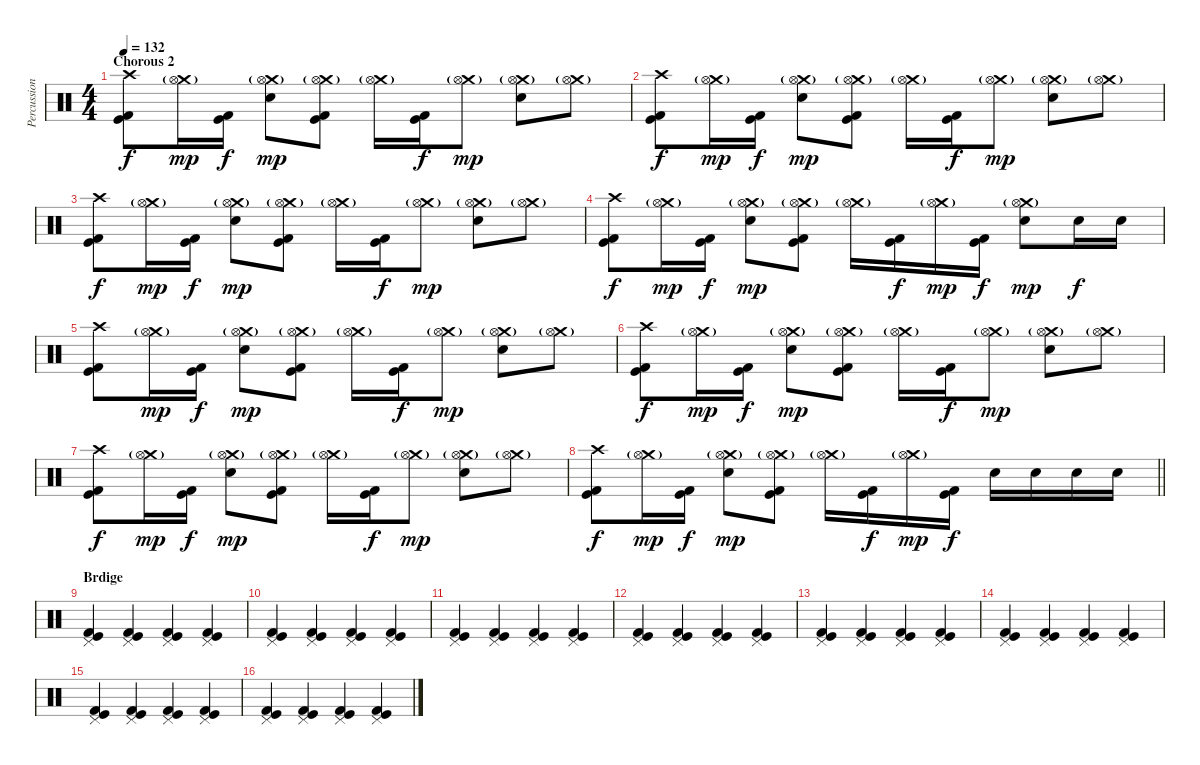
\track ("Percussion" "Percussion") {instrument percussion}
\staff {score}
\articulation defaults
\ts (4 4)
\section ("" "Chorous 2")
\tempo 132
\clef neutral
\ks c
("Crash high (hit)" "Kick (hit)" "Kick (hit) 2").8{dy f} ("Crash medium (hit)"{g} "Hi-Hat (open)").16{dy mp} ("Kick (hit)" "Kick (hit) 2").16{dy f} ("Crash medium (hit)"{g} "Hi-Hat (open)" "Electric Snare (hit)").8{dy mp} ("Crash medium (hit)"{g} "Hi-Hat (open)" "Kick (hit)" "Kick (hit) 2").8 ("Crash medium (hit)"{g} "Hi-Hat (open)").16 ("Kick (hit)" "Kick (hit) 2").16{dy f} ("Crash medium (hit)"{g} "Hi-Hat (open)").8{dy mp} ("Crash medium (hit)"{g} "Hi-Hat (open)" "Electric Snare (hit)").8 ("Crash medium (hit)"{g} "Hi-Hat (open)").8 |
("Crash high (hit)" "Kick (hit)" "Kick (hit) 2").8{dy f} ("Crash medium (hit)"{g} "Hi-Hat (open)").16{dy mp} ("Kick (hit)" "Kick (hit) 2").16{dy f} ("Crash medium (hit)"{g} "Hi-Hat (open)" "Electric Snare (hit)").8{dy mp} ("Crash medium (hit)"{g} "Hi-Hat (open)" "Kick (hit)" "Kick (hit) 2").8 ("Crash medium (hit)"{g} "Hi-Hat (open)").16 ("Kick (hit)" "Kick (hit) 2").16{dy f} ("Crash medium (hit)"{g} "Hi-Hat (open)").8{dy mp} ("Crash medium (hit)"{g} "Hi-Hat (open)" "Electric Snare (hit)").8 ("Crash medium (hit)"{g} "Hi-Hat (open)").8 |
("Crash high (hit)" "Kick (hit)" "Kick (hit) 2").8{dy f} ("Crash medium (hit)"{g} "Hi-Hat (open)").16{dy mp} ("Kick (hit)" "Kick (hit) 2").16{dy f} ("Crash medium (hit)"{g} "Hi-Hat (open)" "Electric Snare (hit)").8{dy mp} ("Crash medium (hit)"{g} "Hi-Hat (open)" "Kick (hit)" "Kick (hit) 2").8 ("Crash medium (hit)"{g} "Hi-Hat (open)").16 ("Kick (hit)" "Kick (hit) 2").16{dy f} ("Crash medium (hit)"{g} "Hi-Hat (open)").8{dy mp} ("Crash medium (hit)"{g} "Hi-Hat (open)" "Electric Snare (hit)").8 ("Crash medium (hit)"{g} "Hi-Hat (open)").8 |
("Crash high (hit)" "Kick (hit)" "Kick (hit) 2").8{dy f} ("Crash medium (hit)"{g} "Hi-Hat (open)").16{dy mp} ("Kick (hit)" "Kick (hit) 2").16{dy f} ("Crash medium (hit)"{g} "Hi-Hat (open)" "Electric Snare (hit)").8{dy mp} ("Crash medium (hit)"{g} "Hi-Hat (open)" "Kick (hit)" "Kick (hit) 2").8 ("Crash medium (hit)"{g} "Hi-Hat (open)").16 ("Kick (hit)" "Kick (hit) 2").16{dy f} ("Crash medium (hit)"{g} "Hi-Hat (open)").16{dy mp} ("Kick (hit)" "Kick (hit) 2").16{dy f} ("Crash medium (hit)"{g} "Hi-Hat (open)" "Electric Snare (hit)").8{dy mp} "Electric Snare (hit)".16{dy f} "Electric Snare (hit)".16 |
("Crash high (hit)" "Kick (hit)" "Kick (hit) 2").8 ("Crash medium (hit)"{g} "Hi-Hat (open)").16{dy mp} ("Kick (hit)" "Kick (hit) 2").16{dy f} ("Crash medium (hit)"{g} "Hi-Hat (open)" "Electric Snare (hit)").8{dy mp} ("Crash medium (hit)"{g} "Hi-Hat (open)" "Kick (hit)" "Kick (hit) 2").8 ("Crash medium (hit)"{g} "Hi-Hat (open)").16 ("Kick (hit)" "Kick (hit) 2").16{dy f} ("Crash medium (hit)"{g} "Hi-Hat (open)").8{dy mp} ("Crash medium (hit)"{g} "Hi-Hat (open)" "Electric Snare (hit)").8 ("Crash medium (hit)"{g} "Hi-Hat (open)").8 |
("Crash high (hit)" "Kick (hit)" "Kick (hit) 2").8{dy f} ("Crash medium (hit)"{g} "Hi-Hat (open)").16{dy mp} ("Kick (hit)" "Kick (hit) 2").16{dy f} ("Crash medium (hit)"{g} "Hi-Hat (open)" "Electric Snare (hit)").8{dy mp} ("Crash medium (hit)"{g} "Hi-Hat (open)" "Kick (hit)" "Kick (hit) 2").8 ("Crash medium (hit)"{g} "Hi-Hat (open)").16 ("Kick (hit)" "Kick (hit) 2").16{dy f} ("Crash medium (hit)"{g} "Hi-Hat (open)").8{dy mp} ("Crash medium (hit)"{g} "Hi-Hat (open)" "Electric Snare (hit)").8 ("Crash medium (hit)"{g} "Hi-Hat (open)").8 |
("Crash high (hit)" "Kick (hit)" "Kick (hit) 2").8{dy f} ("Crash medium (hit)"{g} "Hi-Hat (open)").16{dy mp} ("Kick (hit)" "Kick (hit) 2").16{dy f} ("Crash medium (hit)"{g} "Hi-Hat (open)" "Electric Snare (hit)").8{dy mp} ("Crash medium (hit)"{g} "Hi-Hat (open)" "Kick (hit)" "Kick (hit) 2").8 ("Crash medium (hit)"{g} "Hi-Hat (open)").16 ("Kick (hit)" "Kick (hit) 2").16{dy f} ("Crash medium (hit)"{g} "Hi-Hat (open)").8{dy mp} ("Crash medium (hit)"{g} "Hi-Hat (open)" "Electric Snare (hit)").8 ("Crash medium (hit)"{g} "Hi-Hat (open)").8 |
\barLineRight lightlight
("Crash high (hit)" "Kick (hit)" "Kick (hit) 2").8{dy f} ("Crash medium (hit)"{g} "Hi-Hat (open)").16{dy mp} ("Kick (hit)" "Kick (hit) 2").16{dy f} ("Crash medium (hit)"{g} "Hi-Hat (open)" "Electric Snare (hit)").8{dy mp} ("Crash medium (hit)"{g} "Hi-Hat (open)" "Kick (hit)" "Kick (hit) 2").8 ("Crash medium (hit)"{g} "Hi-Hat (open)").16 ("Kick (hit)" "Kick (hit) 2").16{dy f} ("Crash medium (hit)"{g} "Hi-Hat (open)").16{dy mp} ("Kick (hit)" "Kick (hit) 2").16{dy f} "Electric Snare (hit)".16 "Electric Snare (hit)".16 "Electric Snare (hit)".16 "Electric Snare (hit)".16 |
\section ("" "Brdige")
("Pedal Hi-Hat (hit)" "Kick (hit)" "Kick (hit) 2").4 ("Pedal Hi-Hat (hit)" "Kick (hit)" "Kick (hit) 2").4 ("Pedal Hi-Hat (hit)" "Kick (hit)" "Kick (hit) 2").4 ("Pedal Hi-Hat (hit)" "Kick (hit)" "Kick (hit) 2").4 |
("Pedal Hi-Hat (hit)" "Kick (hit)" "Kick (hit) 2").4 ("Pedal Hi-Hat (hit)" "Kick (hit)" "Kick (hit) 2").4 ("Pedal Hi-Hat (hit)" "Kick (hit)" "Kick (hit) 2").4 ("Pedal Hi-Hat (hit)" "Kick (hit)" "Kick (hit) 2").4 |
("Pedal Hi-Hat (hit)" "Kick (hit)" "Kick (hit) 2").4 ("Pedal Hi-Hat (hit)" "Kick (hit)" "Kick (hit) 2").4 ("Pedal Hi-Hat (hit)" "Kick (hit)" "Kick (hit) 2").4 ("Pedal Hi-Hat (hit)" "Kick (hit)" "Kick (hit) 2").4 |
("Pedal Hi-Hat (hit)" "Kick (hit)" "Kick (hit) 2").4 ("Pedal Hi-Hat (hit)" "Kick (hit)" "Kick (hit) 2").4 ("Pedal Hi-Hat (hit)" "Kick (hit)" "Kick (hit) 2").4 ("Pedal Hi-Hat (hit)" "Kick (hit)" "Kick (hit) 2").4 |
("Pedal Hi-Hat (hit)" "Kick (hit)" "Kick (hit) 2").4 ("Pedal Hi-Hat (hit)" "Kick (hit)" "Kick (hit) 2").4 ("Pedal Hi-Hat (hit)" "Kick (hit)" "Kick (hit) 2").4 ("Pedal Hi-Hat (hit)" "Kick (hit)" "Kick (hit) 2").4 |
("Pedal Hi-Hat (hit)" "Kick (hit)" "Kick (hit) 2").4 ("Pedal Hi-Hat (hit)" "Kick (hit)" "Kick (hit) 2").4 ("Pedal Hi-Hat (hit)" "Kick (hit)" "Kick (hit) 2").4 ("Pedal Hi-Hat (hit)" "Kick (hit)" "Kick (hit) 2").4 |
("Pedal Hi-Hat (hit)" "Kick (hit)" "Kick (hit) 2").4 ("Pedal Hi-Hat (hit)" "Kick (hit)" "Kick (hit) 2").4 ("Pedal Hi-Hat (hit)" "Kick (hit)" "Kick (hit) 2").4 ("Pedal Hi-Hat (hit)" "Kick (hit)" "Kick (hit) 2").4 |
("Pedal Hi-Hat (hit)" "Kick (hit)" "Kick (hit) 2").4 ("Pedal Hi-Hat (hit)" "Kick (hit)" "Kick (hit) 2").4 ("Pedal Hi-Hat (hit)" "Kick (hit)" "Kick (hit) 2").4 ("Pedal Hi-Hat (hit)" "Kick (hit)" "Kick (hit) 2").4
